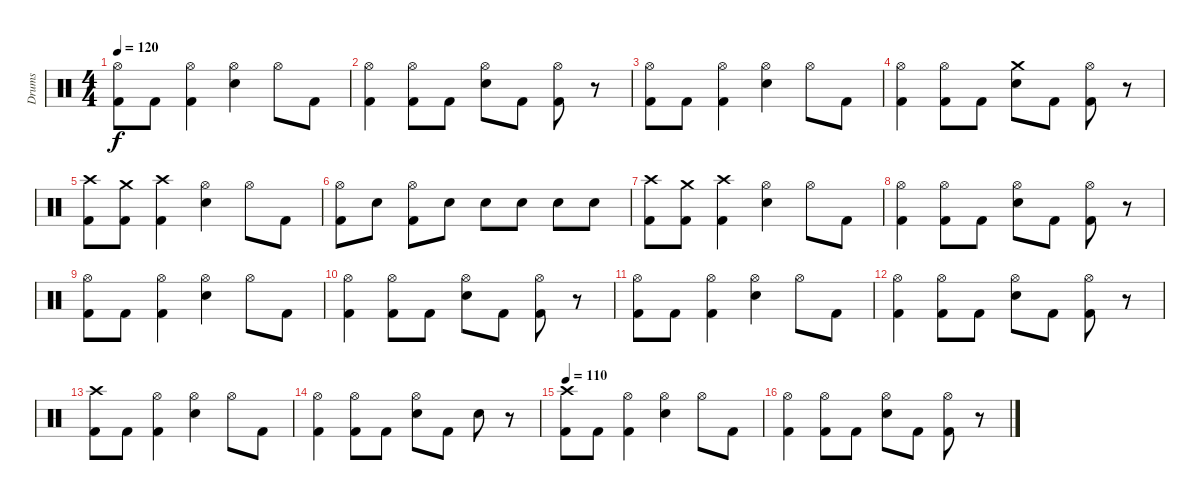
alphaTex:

\track ("Drums" "Drums") {instrument percussion}
\staff {score}
\articulation defaults
\ts (4 4)
\tempo 120
\clef neutral
\ks c
("Hi-Hat (open)" "Kick (hit) 2").8{dy f} "Kick (hit) 2".8 ("Hi-Hat (open)" "Kick (hit) 2").4 ("Hi-Hat (open)" "Snare (hit) 2").4 "Hi-Hat (open)".8 "Kick (hit) 2".8 |
("Hi-Hat (open)" "Kick (hit) 2").4 ("Hi-Hat (open)" "Kick (hit) 2").8 "Kick (hit) 2".8 ("Hi-Hat (open)" "Snare (hit) 2").8 "Kick (hit) 2".8 ("Hi-Hat (open)" "Kick (hit) 2").8 r.8 |
("Hi-Hat (open)" "Kick (hit) 2").8 "Kick (hit) 2".8 ("Hi-Hat (open)" "Kick (hit) 2").4 ("Hi-Hat (open)" "Snare (hit) 2").4 "Hi-Hat (open)".8 "Kick (hit) 2".8 |
("Hi-Hat (open)" "Kick (hit) 2").4 ("Hi-Hat (open)" "Kick (hit) 2").8 "Kick (hit) 2".8 ("Crash medium (hit)" "Snare (hit) 2").8 "Kick (hit) 2".8 ("Hi-Hat (open)" "Kick (hit) 2").8 r.8 |
("Crash high (hit)" "Kick (hit) 2").8 ("Crash medium (hit)" "Kick (hit) 2").8 ("Crash high (hit)" "Kick (hit) 2").4 ("Hi-Hat (open)" "Snare (hit) 2").4 "Hi-Hat (open)".8 "Kick (hit) 2".8 |
("Hi-Hat (open)" "Kick (hit) 2").8 "Snare (hit) 2".8 ("Hi-Hat (open)" "Kick (hit) 2").8 "Snare (hit) 2".8 "Snare (hit) 2".8 "Snare (hit) 2".8 "Snare (hit) 2".8 "Snare (hit) 2".8 |
("Crash high (hit)" "Kick (hit) 2").8 ("Crash medium (hit)" "Kick (hit) 2").8 ("Crash high (hit)" "Kick (hit) 2").4 ("Hi-Hat (open)" "Snare (hit) 2").4 "Hi-Hat (open)".8 "Kick (hit) 2".8 |
("Hi-Hat (open)" "Kick (hit) 2").4 ("Hi-Hat (open)" "Kick (hit) 2").8 "Kick (hit) 2".8 ("Hi-Hat (open)" "Snare (hit) 2").8 "Kick (hit) 2".8 ("Hi-Hat (open)" "Kick (hit) 2").8 r.8 |
("Hi-Hat (open)" "Kick (hit) 2").8 "Kick (hit) 2".8 ("Hi-Hat (open)" "Kick (hit) 2").4 ("Hi-Hat (open)" "Snare (hit) 2").4 "Hi-Hat (open)".8 "Kick (hit) 2".8 |
("Hi-Hat (open)" "Kick (hit) 2").4 ("Hi-Hat (open)" "Kick (hit) 2").8 "Kick (hit) 2".8 ("Hi-Hat (open)" "Snare (hit) 2").8 "Kick (hit) 2".8 ("Hi-Hat (open)" "Kick (hit) 2").8 r.8 |
("Hi-Hat (open)" "Kick (hit) 2").8 "Kick (hit) 2".8 ("Hi-Hat (open)" "Kick (hit) 2").4 ("Hi-Hat (open)" "Snare (hit) 2").4 "Hi-Hat (open)".8 "Kick (hit) 2".8 |
("Hi-Hat (open)" "Kick (hit) 2").4 ("Hi-Hat (open)" "Kick (hit) 2").8 "Kick (hit) 2".8 ("Hi-Hat (open)" "Snare (hit) 2").8 "Kick (hit) 2".8 ("Hi-Hat (open)" "Kick (hit) 2").8 r.8 |
("Crash high (hit)" "Kick (hit) 2").8 "Kick (hit) 2".8 ("Hi-Hat (open)" "Kick (hit) 2").4 ("Hi-Hat (open)" "Snare (hit) 2").4 "Hi-Hat (open)".8 "Kick (hit) 2".8 |
("Hi-Hat (open)" "Kick (hit) 2").4 ("Hi-Hat (open)" "Kick (hit) 2").8 "Kick (hit) 2".8 ("Hi-Hat (open)" "Snare (hit) 2").8 "Kick (hit) 2".8 "Snare (hit) 2".8 r.8 |
\tempo 110
("Crash high (hit)" "Kick (hit) 2").8 "Kick (hit) 2".8 ("Hi-Hat (open)" "Kick (hit) 2").4 ("Hi-Hat (open)" "Snare (hit) 2").4 "Hi-Hat (open)".8 "Kick (hit) 2".8 |
("Hi-Hat (open)" "Kick (hit) 2").4 ("Hi-Hat (open)" "Kick (hit) 2").8 "Kick (hit) 2".8 ("Hi-Hat (open)" "Snare (hit) 2").8 "Kick (hit) 2".8 ("Hi-Hat (open)" "Kick (hit) 2").8 r.8
